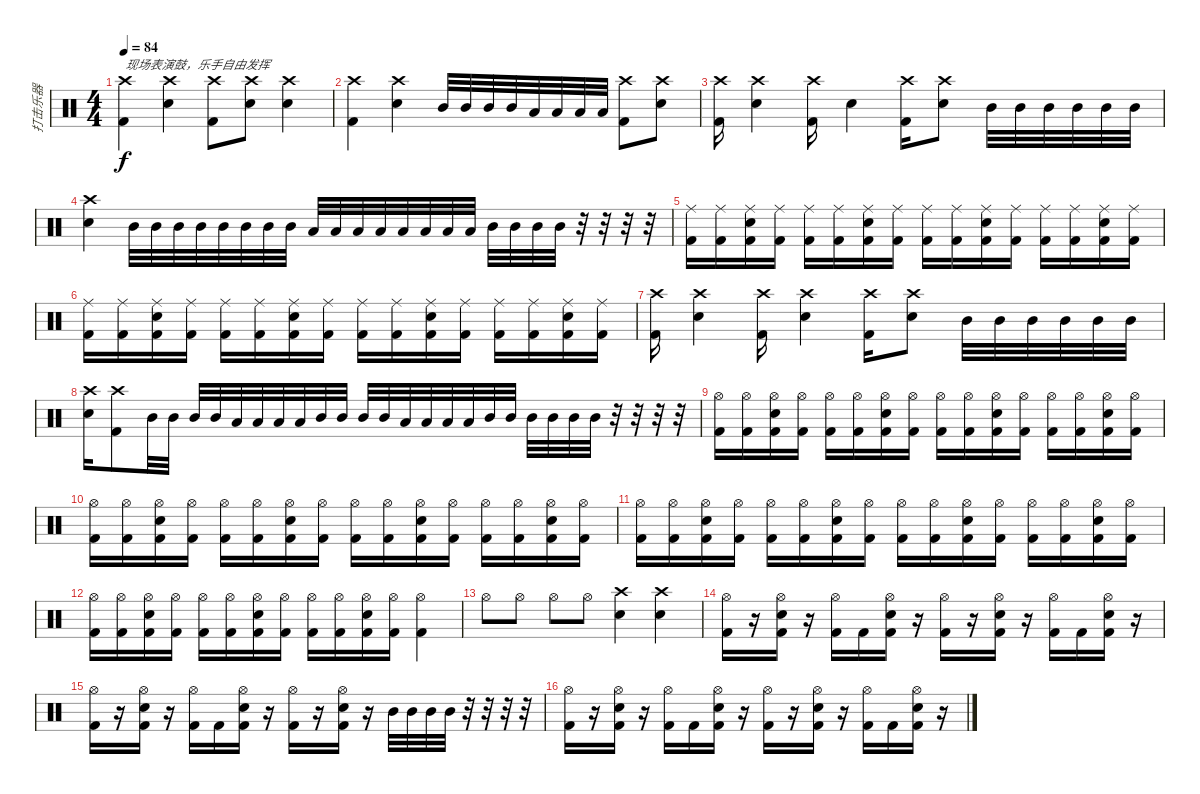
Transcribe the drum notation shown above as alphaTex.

\track ("打击乐器" "打击乐器") {instrument percussion}
\staff {score}
\articulation defaults
\ts (4 4)
\tempo 84
\clef neutral
\ks c
("Crash high (hit)" "Kick (hit) 2").4{txt "现场表演鼓，乐手自由发挥" dy f} ("Crash high (hit)" "Snare (hit) 2").4 ("Crash high (hit)" "Kick (hit) 2").8 ("Crash high (hit)" "Snare (hit) 2").8 ("Crash high (hit)" "Snare (hit) 2").4 |
("Crash high (hit)" "Kick (hit) 2").4 ("Crash high (hit)" "Snare (hit) 2").4 "Mid Tom (hit)".32 "Mid Tom (hit)".32 "Mid Tom (hit)".32 "Mid Tom (hit)".32 "Low Tom (hit)".32 "Low Tom (hit)".32 "Low Tom (hit)".32 "Low Tom (hit)".32 ("Crash high (hit)" "Kick (hit) 2").8 ("Crash high (hit)" "Snare (hit) 2").8 |
("Crash high (hit)" "Kick (hit) 2").16 ("Crash high (hit)" "Snare (hit) 2").4 ("Crash high (hit)" "Kick (hit) 2").16 "Snare (hit) 2".4 ("Crash high (hit)" "Kick (hit) 2").16 ("Crash high (hit)" "Snare (hit) 2").8 "Mid Tom (hit)".32 "Mid Tom (hit)".32 "Mid Tom (hit)".32 "Mid Tom (hit)".32 "Mid Tom (hit)".32 "Mid Tom (hit)".32 |
("Crash high (hit)" "Snare (hit) 2").4 "Mid Tom (hit)".32 "Mid Tom (hit)".32 "Mid Tom (hit)".32 "Mid Tom (hit)".32 "Mid Tom (hit)".32 "Mid Tom (hit)".32 "Mid Tom (hit)".32 "Mid Tom (hit)".32 "Low Tom (hit)".32 "Low Tom (hit)".32 "Low Tom (hit)".32 "Low Tom (hit)".32 "Low Tom (hit)".32 "Low Tom (hit)".32 "Low Tom (hit)".32 "Low Tom (hit)".32 "Mid Tom (hit)".32 "Mid Tom (hit)".32 "Mid Tom (hit)".32 "Mid Tom (hit)".32 r.32 r.32 r.32 r.32 |
("Ride (middle)" "Kick (hit) 2").16 ("Ride (middle)" "Kick (hit) 2").16 ("Ride (middle)" "Snare (hit) 2" "Kick (hit) 2").16 ("Ride (middle)" "Kick (hit) 2").16 ("Ride (middle)" "Kick (hit) 2").16 ("Ride (middle)" "Kick (hit) 2").16 ("Ride (middle)" "Snare (hit) 2" "Kick (hit) 2").16 ("Ride (middle)" "Kick (hit) 2").16 ("Ride (middle)" "Kick (hit) 2").16 ("Ride (middle)" "Kick (hit) 2").16 ("Ride (middle)" "Snare (hit) 2" "Kick (hit) 2").16 ("Ride (middle)" "Kick (hit) 2").16 ("Ride (middle)" "Kick (hit) 2").16 ("Ride (middle)" "Kick (hit) 2").16 ("Ride (middle)" "Snare (hit) 2" "Kick (hit) 2").16 ("Ride (middle)" "Kick (hit) 2").16 |
("Ride (middle)" "Kick (hit) 2").16 ("Ride (middle)" "Kick (hit) 2").16 ("Ride (middle)" "Snare (hit) 2" "Kick (hit) 2").16 ("Ride (middle)" "Kick (hit) 2").16 ("Ride (middle)" "Kick (hit) 2").16 ("Ride (middle)" "Kick (hit) 2").16 ("Ride (middle)" "Snare (hit) 2" "Kick (hit) 2").16 ("Ride (middle)" "Kick (hit) 2").16 ("Ride (middle)" "Kick (hit) 2").16 ("Ride (middle)" "Kick (hit) 2").16 ("Ride (middle)" "Snare (hit) 2" "Kick (hit) 2").16 ("Ride (middle)" "Kick (hit) 2").16 ("Ride (middle)" "Kick (hit) 2").16 ("Ride (middle)" "Kick (hit) 2").16 ("Ride (middle)" "Snare (hit) 2" "Kick (hit) 2").16 ("Ride (middle)" "Kick (hit) 2").16 |
("Crash high (hit)" "Kick (hit) 2").16 ("Crash high (hit)" "Snare (hit) 2").4 ("Crash high (hit)" "Kick (hit) 2").16 ("Crash high (hit)" "Snare (hit) 2").4 ("Crash high (hit)" "Kick (hit) 2").16 ("Crash high (hit)" "Snare (hit) 2").8 "Mid Tom (hit)".32 "Mid Tom (hit)".32 "Mid Tom (hit)".32 "Mid Tom (hit)".32 "Mid Tom (hit)".32 "Mid Tom (hit)".32 |
("Crash high (hit)" "Snare (hit) 2").16 ("Crash high (hit)" "Kick (hit) 2").8 "Mid Tom (hit)".32 "Mid Tom (hit)".32 "Mid Tom (hit)".32 "Mid Tom (hit)".32 "Low Tom (hit)".32 "Low Tom (hit)".32 "Low Tom (hit)".32 "Low Tom (hit)".32 "Mid Tom (hit)".32 "Mid Tom (hit)".32 "Mid Tom (hit)".32 "Mid Tom (hit)".32 "Low Tom (hit)".32 "Low Tom (hit)".32 "Low Tom (hit)".32 "Low Tom (hit)".32 "Mid Tom (hit)".32 "Mid Tom (hit)".32 "Mid Tom (hit)".32 "Mid Tom (hit)".32 "Mid Tom (hit)".32 "Mid Tom (hit)".32 r.32 r.32 r.32 r.32 |
("Hi-Hat (open)" "Kick (hit) 2").16 ("Hi-Hat (open)" "Kick (hit) 2").16 ("Hi-Hat (open)" "Snare (hit) 2" "Kick (hit) 2").16 ("Hi-Hat (open)" "Kick (hit) 2").16 ("Hi-Hat (open)" "Kick (hit) 2").16 ("Hi-Hat (open)" "Kick (hit) 2").16 ("Hi-Hat (open)" "Snare (hit) 2" "Kick (hit) 2").16 ("Hi-Hat (open)" "Kick (hit) 2").16 ("Hi-Hat (open)" "Kick (hit) 2").16 ("Hi-Hat (open)" "Kick (hit) 2").16 ("Hi-Hat (open)" "Snare (hit) 2" "Kick (hit) 2").16 ("Hi-Hat (open)" "Kick (hit) 2").16 ("Hi-Hat (open)" "Kick (hit) 2").16 ("Hi-Hat (open)" "Kick (hit) 2").16 ("Hi-Hat (open)" "Snare (hit) 2" "Kick (hit) 2").16 ("Hi-Hat (open)" "Kick (hit) 2").16 |
("Hi-Hat (open)" "Kick (hit) 2").16 ("Hi-Hat (open)" "Kick (hit) 2").16 ("Hi-Hat (open)" "Snare (hit) 2" "Kick (hit) 2").16 ("Hi-Hat (open)" "Kick (hit) 2").16 ("Hi-Hat (open)" "Kick (hit) 2").16 ("Hi-Hat (open)" "Kick (hit) 2").16 ("Hi-Hat (open)" "Snare (hit) 2" "Kick (hit) 2").16 ("Hi-Hat (open)" "Kick (hit) 2").16 ("Hi-Hat (open)" "Kick (hit) 2").16 ("Hi-Hat (open)" "Kick (hit) 2").16 ("Hi-Hat (open)" "Snare (hit) 2" "Kick (hit) 2").16 ("Hi-Hat (open)" "Kick (hit) 2").16 ("Hi-Hat (open)" "Kick (hit) 2").16 ("Hi-Hat (open)" "Kick (hit) 2").16 ("Hi-Hat (open)" "Snare (hit) 2" "Kick (hit) 2").16 ("Hi-Hat (open)" "Kick (hit) 2").16 |
("Hi-Hat (open)" "Kick (hit) 2").16 ("Hi-Hat (open)" "Kick (hit) 2").16 ("Hi-Hat (open)" "Snare (hit) 2" "Kick (hit) 2").16 ("Hi-Hat (open)" "Kick (hit) 2").16 ("Hi-Hat (open)" "Kick (hit) 2").16 ("Hi-Hat (open)" "Kick (hit) 2").16 ("Hi-Hat (open)" "Snare (hit) 2" "Kick (hit) 2").16 ("Hi-Hat (open)" "Kick (hit) 2").16 ("Hi-Hat (open)" "Kick (hit) 2").16 ("Hi-Hat (open)" "Kick (hit) 2").16 ("Hi-Hat (open)" "Snare (hit) 2" "Kick (hit) 2").16 ("Hi-Hat (open)" "Kick (hit) 2").16 ("Hi-Hat (open)" "Kick (hit) 2").16 ("Hi-Hat (open)" "Kick (hit) 2").16 ("Hi-Hat (open)" "Snare (hit) 2" "Kick (hit) 2").16 ("Hi-Hat (open)" "Kick (hit) 2").16 |
("Hi-Hat (open)" "Kick (hit) 2").16 ("Hi-Hat (open)" "Kick (hit) 2").16 ("Hi-Hat (open)" "Snare (hit) 2" "Kick (hit) 2").16 ("Hi-Hat (open)" "Kick (hit) 2").16 ("Hi-Hat (open)" "Kick (hit) 2").16 ("Hi-Hat (open)" "Kick (hit) 2").16 ("Hi-Hat (open)" "Snare (hit) 2" "Kick (hit) 2").16 ("Hi-Hat (open)" "Kick (hit) 2").16 ("Hi-Hat (open)" "Kick (hit) 2").16 ("Hi-Hat (open)" "Kick (hit) 2").16 ("Hi-Hat (open)" "Snare (hit) 2" "Kick (hit) 2").16 ("Hi-Hat (open)" "Kick (hit) 2").16 ("Hi-Hat (open)" "Kick (hit) 2").4 |
"Hi-Hat (open)".8 "Hi-Hat (open)".8 "Hi-Hat (open)".8 "Hi-Hat (open)".8 ("Crash high (hit)" "Snare (hit) 2").4 ("Crash high (hit)" "Snare (hit) 2").4 |
("Hi-Hat (open)" "Kick (hit) 2").16 r.16 ("Hi-Hat (open)" "Snare (hit) 2" "Kick (hit) 2").16 r.16 ("Hi-Hat (open)" "Kick (hit) 2").16 "Kick (hit) 2".16 ("Hi-Hat (open)" "Snare (hit) 2" "Kick (hit) 2").16 r.16 ("Hi-Hat (open)" "Kick (hit) 2").16 r.16 ("Hi-Hat (open)" "Snare (hit) 2" "Kick (hit) 2").16 r.16 ("Hi-Hat (open)" "Kick (hit) 2").16 "Kick (hit) 2".16 ("Hi-Hat (open)" "Snare (hit) 2" "Kick (hit) 2").16 r.16 |
("Hi-Hat (open)" "Kick (hit) 2").16 r.16 ("Hi-Hat (open)" "Snare (hit) 2" "Kick (hit) 2").16 r.16 ("Hi-Hat (open)" "Kick (hit) 2").16 "Kick (hit) 2".16 ("Hi-Hat (open)" "Snare (hit) 2" "Kick (hit) 2").16 r.16 ("Hi-Hat (open)" "Kick (hit) 2").16 r.16 ("Hi-Hat (open)" "Snare (hit) 2" "Kick (hit) 2").16 r.16 "Mid Tom (hit)".32 "Mid Tom (hit)".32 "Mid Tom (hit)".32 "Mid Tom (hit)".32 r.32 r.32 r.32 r.32 |
("Hi-Hat (open)" "Kick (hit) 2").16 r.16 ("Hi-Hat (open)" "Snare (hit) 2" "Kick (hit) 2").16 r.16 ("Hi-Hat (open)" "Kick (hit) 2").16 "Kick (hit) 2".16 ("Hi-Hat (open)" "Snare (hit) 2" "Kick (hit) 2").16 r.16 ("Hi-Hat (open)" "Kick (hit) 2").16 r.16 ("Hi-Hat (open)" "Snare (hit) 2" "Kick (hit) 2").16 r.16 ("Hi-Hat (open)" "Kick (hit) 2").16 "Kick (hit) 2".16 ("Hi-Hat (open)" "Snare (hit) 2" "Kick (hit) 2").16 r.16
